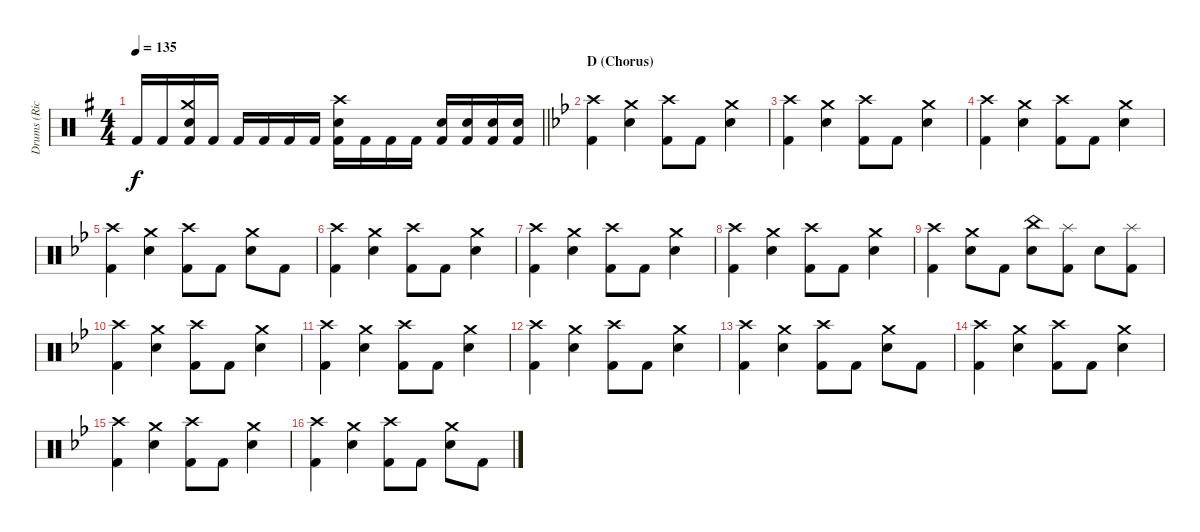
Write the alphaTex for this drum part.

\track ("Drums (Richard Evensand)" "Drums (Ric") {instrument percussion}
\staff {score}
\articulation defaults
\ts (4 4)
\tempo 135
\clef neutral
\barLineRight lightlight
\ks eminor "Kick (hit) 2".16{dy f} "Kick (hit) 2".16
("Crash medium (hit)" "Electric Snare (hit)" "Kick (hit) 2").16 "Kick (hit) 2".16 "Kick (hit) 2".16 "Kick (hit) 2".16 "Kick (hit) 2".16 "Kick (hit) 2".16 ("Crash high (hit)" "Electric Snare (hit)" "Kick (hit) 2").16 "Kick (hit) 2".16 "Kick (hit) 2".16 "Kick (hit) 2".16 ("Electric Snare (hit)" "Kick (hit) 2").16 ("Electric Snare (hit)" "Kick (hit) 2").16 ("Electric Snare (hit)" "Kick (hit) 2").16 ("Electric Snare (hit)" "Kick (hit) 2").16 |
\section ("" "D (Chorus)")
\ks gminor
("Crash high (hit)" "Kick (hit) 2").4 ("Crash medium (hit)" "Electric Snare (hit)").4 ("Crash high (hit)" "Kick (hit) 2").8 "Kick (hit) 2".8 ("Crash medium (hit)" "Electric Snare (hit)").4 |
("Crash high (hit)" "Kick (hit) 2").4 ("Crash medium (hit)" "Electric Snare (hit)").4 ("Crash high (hit)" "Kick (hit) 2").8 "Kick (hit) 2".8 ("Crash medium (hit)" "Electric Snare (hit)").4 |
("Crash high (hit)" "Kick (hit) 2").4 ("Crash medium (hit)" "Electric Snare (hit)").4 ("Crash high (hit)" "Kick (hit) 2").8 "Kick (hit) 2".8 ("Crash medium (hit)" "Electric Snare (hit)").4 |
("Crash high (hit)" "Kick (hit) 2").4 ("Crash medium (hit)" "Electric Snare (hit)").4 ("Crash high (hit)" "Kick (hit) 2").8 "Kick (hit) 2".8 ("Crash medium (hit)" "Electric Snare (hit)").8 "Kick (hit) 2".8 |
("Crash high (hit)" "Kick (hit) 2").4 ("Crash medium (hit)" "Electric Snare (hit)").4 ("Crash high (hit)" "Kick (hit) 2").8 "Kick (hit) 2".8 ("Crash medium (hit)" "Electric Snare (hit)").4 |
("Crash high (hit)" "Kick (hit) 2").4 ("Crash medium (hit)" "Electric Snare (hit)").4 ("Crash high (hit)" "Kick (hit) 2").8 "Kick (hit) 2".8 ("Crash medium (hit)" "Electric Snare (hit)").4 |
("Crash high (hit)" "Kick (hit) 2").4 ("Crash medium (hit)" "Electric Snare (hit)").4 ("Crash high (hit)" "Kick (hit) 2").8 "Kick (hit) 2".8 ("Crash medium (hit)" "Electric Snare (hit)").4 |
("Crash high (hit)" "Kick (hit) 2").4 ("Crash medium (hit)" "Electric Snare (hit)").8 "Kick (hit) 2".8 ("China (hit)" "Electric Snare (hit)").8 ("Splash (hit)" "Kick (hit) 2").8 "Electric Snare (hit)".8 ("Splash (hit)" "Kick (hit) 2").8 |
("Crash high (hit)" "Kick (hit) 2").4 ("Crash medium (hit)" "Electric Snare (hit)").4 ("Crash high (hit)" "Kick (hit) 2").8 "Kick (hit) 2".8 ("Crash medium (hit)" "Electric Snare (hit)").4 |
("Crash high (hit)" "Kick (hit) 2").4 ("Crash medium (hit)" "Electric Snare (hit)").4 ("Crash high (hit)" "Kick (hit) 2").8 "Kick (hit) 2".8 ("Crash medium (hit)" "Electric Snare (hit)").4 |
("Crash high (hit)" "Kick (hit) 2").4 ("Crash medium (hit)" "Electric Snare (hit)").4 ("Crash high (hit)" "Kick (hit) 2").8 "Kick (hit) 2".8 ("Crash medium (hit)" "Electric Snare (hit)").4 |
("Crash high (hit)" "Kick (hit) 2").4 ("Crash medium (hit)" "Electric Snare (hit)").4 ("Crash high (hit)" "Kick (hit) 2").8 "Kick (hit) 2".8 ("Crash medium (hit)" "Electric Snare (hit)").8 "Kick (hit) 2".8 |
("Crash high (hit)" "Kick (hit) 2").4 ("Crash medium (hit)" "Electric Snare (hit)").4 ("Crash high (hit)" "Kick (hit) 2").8 "Kick (hit) 2".8 ("Crash medium (hit)" "Electric Snare (hit)").4 |
("Crash high (hit)" "Kick (hit) 2").4 ("Crash medium (hit)" "Electric Snare (hit)").4 ("Crash high (hit)" "Kick (hit) 2").8 "Kick (hit) 2".8 ("Crash medium (hit)" "Electric Snare (hit)").4 |
("Crash high (hit)" "Kick (hit) 2").4 ("Crash medium (hit)" "Electric Snare (hit)").4 ("Crash high (hit)" "Kick (hit) 2").8 "Kick (hit) 2".8 ("Crash medium (hit)" "Electric Snare (hit)").8 "Kick (hit) 2".8
